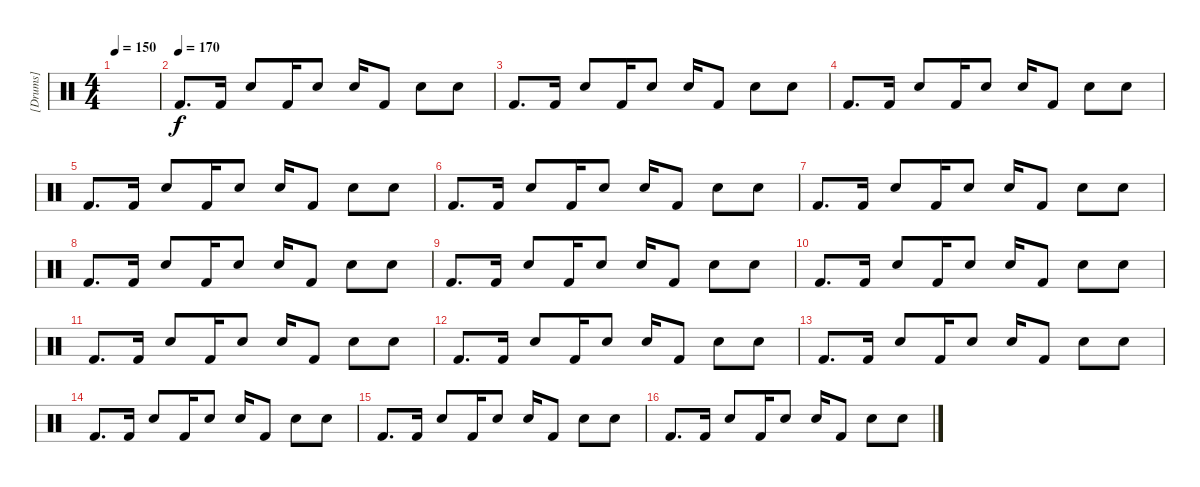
\track ("[Drums]" "[Drums]") {instrument percussion}
\staff {score}
\articulation defaults
\ts (4 4)
\tempo 150
\clef neutral
\ks c
|
\tempo (170)
"Kick (hit) 2".8{d} "Kick (hit) 2".16 "Snare (hit) 2".8 "Kick (hit) 2".16 "Snare (hit) 2".8 "Snare (hit) 2".16 "Kick (hit) 2".8 "Snare (hit) 2".8 "Snare (hit) 2".8 |
"Kick (hit) 2".8{d} "Kick (hit) 2".16 "Snare (hit) 2".8 "Kick (hit) 2".16 "Snare (hit) 2".8 "Snare (hit) 2".16 "Kick (hit) 2".8 "Snare (hit) 2".8 "Snare (hit) 2".8 |
"Kick (hit) 2".8{d} "Kick (hit) 2".16 "Snare (hit) 2".8 "Kick (hit) 2".16 "Snare (hit) 2".8 "Snare (hit) 2".16 "Kick (hit) 2".8 "Snare (hit) 2".8 "Snare (hit) 2".8 |
"Kick (hit) 2".8{d} "Kick (hit) 2".16 "Snare (hit) 2".8 "Kick (hit) 2".16 "Snare (hit) 2".8 "Snare (hit) 2".16 "Kick (hit) 2".8 "Snare (hit) 2".8 "Snare (hit) 2".8 |
"Kick (hit) 2".8{d} "Kick (hit) 2".16 "Snare (hit) 2".8 "Kick (hit) 2".16 "Snare (hit) 2".8 "Snare (hit) 2".16 "Kick (hit) 2".8 "Snare (hit) 2".8 "Snare (hit) 2".8 |
"Kick (hit) 2".8{d} "Kick (hit) 2".16 "Snare (hit) 2".8 "Kick (hit) 2".16 "Snare (hit) 2".8 "Snare (hit) 2".16 "Kick (hit) 2".8 "Snare (hit) 2".8 "Snare (hit) 2".8 |
"Kick (hit) 2".8{d} "Kick (hit) 2".16 "Snare (hit) 2".8 "Kick (hit) 2".16 "Snare (hit) 2".8 "Snare (hit) 2".16 "Kick (hit) 2".8 "Snare (hit) 2".8 "Snare (hit) 2".8 |
"Kick (hit) 2".8{d} "Kick (hit) 2".16 "Snare (hit) 2".8 "Kick (hit) 2".16 "Snare (hit) 2".8 "Snare (hit) 2".16 "Kick (hit) 2".8 "Snare (hit) 2".8 "Snare (hit) 2".8 |
"Kick (hit) 2".8{d} "Kick (hit) 2".16 "Snare (hit) 2".8 "Kick (hit) 2".16 "Snare (hit) 2".8 "Snare (hit) 2".16 "Kick (hit) 2".8 "Snare (hit) 2".8 "Snare (hit) 2".8 |
"Kick (hit) 2".8{d} "Kick (hit) 2".16 "Snare (hit) 2".8 "Kick (hit) 2".16 "Snare (hit) 2".8 "Snare (hit) 2".16 "Kick (hit) 2".8 "Snare (hit) 2".8 "Snare (hit) 2".8 |
"Kick (hit) 2".8{d} "Kick (hit) 2".16 "Snare (hit) 2".8 "Kick (hit) 2".16 "Snare (hit) 2".8 "Snare (hit) 2".16 "Kick (hit) 2".8 "Snare (hit) 2".8 "Snare (hit) 2".8 |
"Kick (hit) 2".8{d} "Kick (hit) 2".16 "Snare (hit) 2".8 "Kick (hit) 2".16 "Snare (hit) 2".8 "Snare (hit) 2".16 "Kick (hit) 2".8 "Snare (hit) 2".8 "Snare (hit) 2".8 |
"Kick (hit) 2".8{d} "Kick (hit) 2".16 "Snare (hit) 2".8 "Kick (hit) 2".16 "Snare (hit) 2".8 "Snare (hit) 2".16 "Kick (hit) 2".8 "Snare (hit) 2".8 "Snare (hit) 2".8 |
"Kick (hit) 2".8{d} "Kick (hit) 2".16 "Snare (hit) 2".8 "Kick (hit) 2".16 "Snare (hit) 2".8 "Snare (hit) 2".16 "Kick (hit) 2".8 "Snare (hit) 2".8 "Snare (hit) 2".8 |
"Kick (hit) 2".8{d} "Kick (hit) 2".16 "Snare (hit) 2".8 "Kick (hit) 2".16 "Snare (hit) 2".8 "Snare (hit) 2".16 "Kick (hit) 2".8 "Snare (hit) 2".8 "Snare (hit) 2".8
